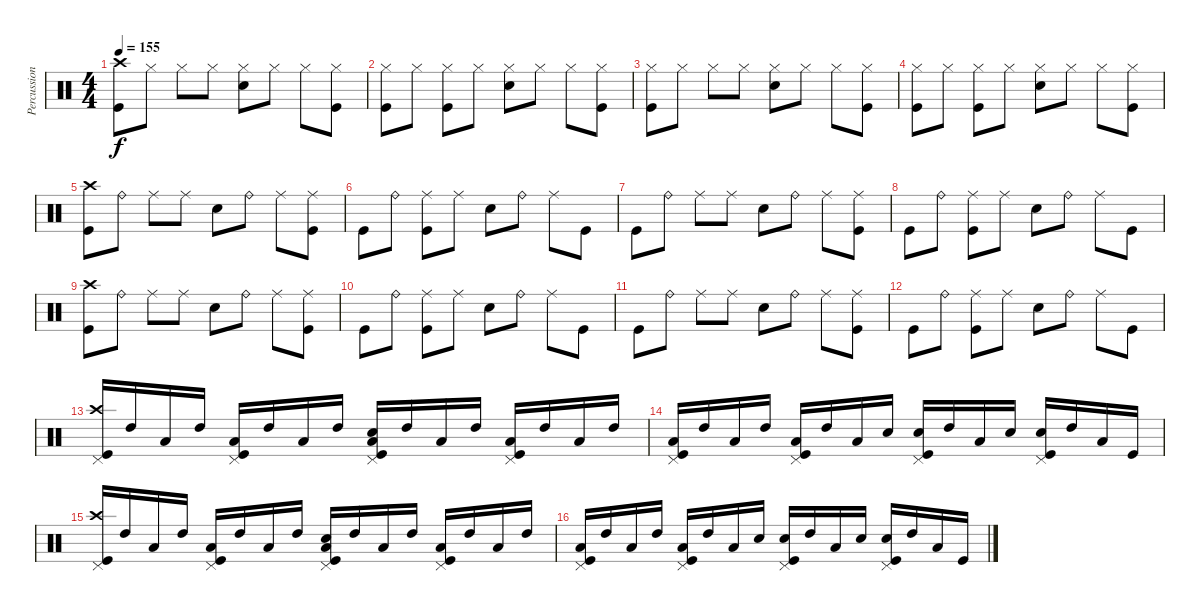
\track ("Percussion" "Percussion") {instrument percussion}
\staff {score}
\articulation defaults
\ts (4 4)
\tempo 155
\clef neutral
\ks c
("Kick (hit)" "Crash high (hit)").8{dy f} "Hi-Hat (closed)".8 "Hi-Hat (closed)".8 "Hi-Hat (closed)".8 ("Hi-Hat (closed)" "Snare (hit) 2").8 "Hi-Hat (closed)".8 "Hi-Hat (closed)".8 ("Hi-Hat (closed)" "Kick (hit)").8 |
("Kick (hit)" "Hi-Hat (closed)").8 "Hi-Hat (closed)".8 ("Hi-Hat (closed)" "Kick (hit)").8 "Hi-Hat (closed)".8 ("Hi-Hat (closed)" "Snare (hit) 2").8 "Hi-Hat (closed)".8 "Hi-Hat (closed)".8 ("Hi-Hat (closed)" "Kick (hit)").8 |
("Kick (hit)" "Hi-Hat (closed)").8 "Hi-Hat (closed)".8 "Hi-Hat (closed)".8 "Hi-Hat (closed)".8 ("Hi-Hat (closed)" "Snare (hit) 2").8 "Hi-Hat (closed)".8 "Hi-Hat (closed)".8 ("Hi-Hat (closed)" "Kick (hit)").8 |
("Kick (hit)" "Hi-Hat (closed)").8 "Hi-Hat (closed)".8 ("Hi-Hat (closed)" "Kick (hit)").8 "Hi-Hat (closed)".8 ("Hi-Hat (closed)" "Snare (hit) 2").8 "Hi-Hat (closed)".8 "Hi-Hat (closed)".8 ("Hi-Hat (closed)" "Kick (hit)").8 |
("Kick (hit)" "Crash high (hit)").8 "Ride (bell)".8 "Ride (middle)".8 "Ride (middle)".8 "Snare (hit) 2".8 "Ride (bell)".8 "Ride (middle)".8 ("Ride (middle)" "Kick (hit)").8 |
"Kick (hit)".8 "Ride (bell)".8 ("Ride (middle)" "Kick (hit)").8 "Ride (middle)".8 "Snare (hit) 2".8 "Ride (bell)".8 "Ride (middle)".8 "Kick (hit)".8 |
"Kick (hit)".8 "Ride (bell)".8 "Ride (middle)".8 "Ride (middle)".8 "Snare (hit) 2".8 "Ride (bell)".8 "Ride (middle)".8 ("Ride (middle)" "Kick (hit)").8 |
"Kick (hit)".8 "Ride (bell)".8 ("Ride (middle)" "Kick (hit)").8 "Ride (middle)".8 "Snare (hit) 2".8 "Ride (bell)".8 "Ride (middle)".8 "Kick (hit)".8 |
("Kick (hit)" "Crash high (hit)").8 "Ride (bell)".8 "Ride (middle)".8 "Ride (middle)".8 "Snare (hit) 2".8 "Ride (bell)".8 "Ride (middle)".8 ("Ride (middle)" "Kick (hit)").8 |
"Kick (hit)".8 "Ride (bell)".8 ("Ride (middle)" "Kick (hit)").8 "Ride (middle)".8 "Snare (hit) 2".8 "Ride (bell)".8 "Ride (middle)".8 "Kick (hit)".8 |
"Kick (hit)".8 "Ride (bell)".8 "Ride (middle)".8 "Ride (middle)".8 "Snare (hit) 2".8 "Ride (bell)".8 "Ride (middle)".8 ("Ride (middle)" "Kick (hit)").8 |
"Kick (hit)".8 "Ride (bell)".8 ("Ride (middle)" "Kick (hit)").8 "Ride (middle)".8 "Snare (hit) 2".8 "Ride (bell)".8 "Ride (middle)".8 "Kick (hit)".8 |
("Kick (hit)" "Crash high (hit)" "Pedal Hi-Hat (hit)").16 "High Tom (hit)".16 "Low Floor Tom (hit)".16 "High Tom (hit)".16 ("Low Floor Tom (hit)" "Pedal Hi-Hat (hit)" "Kick (hit)").16 "High Tom (hit)".16 "Low Floor Tom (hit)".16 "High Tom (hit)".16 ("Low Floor Tom (hit)" "Pedal Hi-Hat (hit)" "Kick (hit)" "Snare (hit) 2").16 "High Tom (hit)".16 "Low Floor Tom (hit)".16 "High Tom (hit)".16 ("Low Floor Tom (hit)" "Pedal Hi-Hat (hit)" "Kick (hit)").16 "High Tom (hit)".16 "Low Floor Tom (hit)".16 "High Tom (hit)".16 |
("Kick (hit)" "Low Floor Tom (hit)" "Pedal Hi-Hat (hit)").16 "High Tom (hit)".16 "Low Floor Tom (hit)".16 "High Tom (hit)".16 ("Low Floor Tom (hit)" "Pedal Hi-Hat (hit)" "Kick (hit)").16 "High Tom (hit)".16 "Low Floor Tom (hit)".16 "Snare (hit) 2".16 ("Snare (hit) 2" "Kick (hit)" "Pedal Hi-Hat (hit)").16 "High Tom (hit)".16 "Low Floor Tom (hit)".16 "Snare (hit) 2".16 ("Snare (hit) 2" "Pedal Hi-Hat (hit)" "Kick (hit)").16 "High Tom (hit)".16 "Low Floor Tom (hit)".16 "Kick (hit)".16 |
("Kick (hit)" "Crash high (hit)" "Pedal Hi-Hat (hit)").16 "High Tom (hit)".16 "Low Floor Tom (hit)".16 "High Tom (hit)".16 ("Low Floor Tom (hit)" "Pedal Hi-Hat (hit)" "Kick (hit)").16 "High Tom (hit)".16 "Low Floor Tom (hit)".16 "High Tom (hit)".16 ("Low Floor Tom (hit)" "Pedal Hi-Hat (hit)" "Kick (hit)" "Snare (hit) 2").16 "High Tom (hit)".16 "Low Floor Tom (hit)".16 "High Tom (hit)".16 ("Low Floor Tom (hit)" "Pedal Hi-Hat (hit)" "Kick (hit)").16 "High Tom (hit)".16 "Low Floor Tom (hit)".16 "High Tom (hit)".16 |
("Kick (hit)" "Low Floor Tom (hit)" "Pedal Hi-Hat (hit)").16 "High Tom (hit)".16 "Low Floor Tom (hit)".16 "High Tom (hit)".16 ("Low Floor Tom (hit)" "Pedal Hi-Hat (hit)" "Kick (hit)").16 "High Tom (hit)".16 "Low Floor Tom (hit)".16 "Snare (hit) 2".16 ("Snare (hit) 2" "Kick (hit)" "Pedal Hi-Hat (hit)").16 "High Tom (hit)".16 "Low Floor Tom (hit)".16 "Snare (hit) 2".16 ("Snare (hit) 2" "Pedal Hi-Hat (hit)" "Kick (hit)").16 "High Tom (hit)".16 "Low Floor Tom (hit)".16 "Kick (hit)".16
